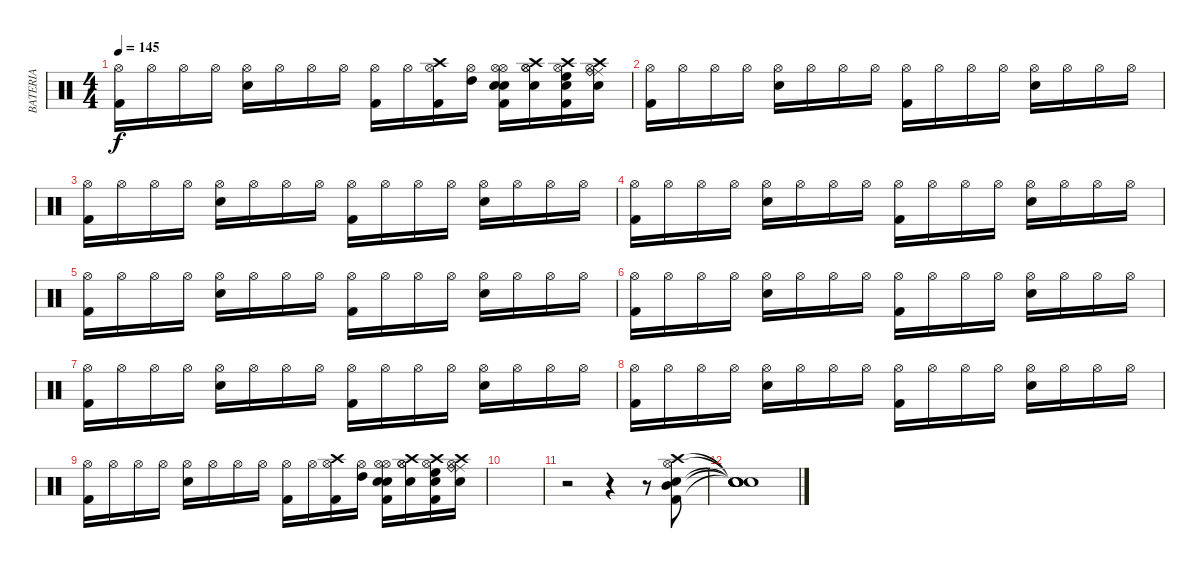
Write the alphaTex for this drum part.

\track ("BATERIA" "BATERIA") {instrument percussion}
\staff {score}
\articulation defaults
\ts (4 4)
\tempo 145
\clef neutral
\ks c
("Hi-Hat (open)" "Kick (hit) 2").16{dy f} "Hi-Hat (open)".16 "Hi-Hat (open)".16 "Hi-Hat (open)".16 ("Hi-Hat (open)" "Snare (hit) 2").16 "Hi-Hat (open)".16 "Hi-Hat (open)".16 "Hi-Hat (open)".16 ("Hi-Hat (open)" "Kick (hit) 2").16 "Hi-Hat (open)".16 ("Hi-Hat (open)" "Kick (hit) 2" "Crash high (hit)").16 ("Hi-Hat (open)" "High Tom (hit)").16 ("Hi-Hat (open)" "Kick (hit) 2" "Snare (hit) 2" "Hi-Hat (open)" "Snare (hit) 2").16 ("Hi-Hat (open)" "Crash high (hit)" "Hi-Hat (open)" "Snare (hit) 2").16 ("Hi-Hat (open)" "Kick (hit) 2" "Crash high (hit)" "High Floor Tom (hit)" "Snare (hit) 2").16 ("Hi-Hat (open)" "Crash high (hit)" "Ride (middle)" "Ride (bell)" "Snare (hit) 2").16 |
("Hi-Hat (open)" "Kick (hit) 2").16 "Hi-Hat (open)".16 "Hi-Hat (open)".16 "Hi-Hat (open)".16 ("Hi-Hat (open)" "Snare (hit) 2").16 "Hi-Hat (open)".16 "Hi-Hat (open)".16 "Hi-Hat (open)".16 ("Hi-Hat (open)" "Kick (hit) 2").16 "Hi-Hat (open)".16 "Hi-Hat (open)".16 "Hi-Hat (open)".16 ("Hi-Hat (open)" "Snare (hit) 2").16 "Hi-Hat (open)".16 "Hi-Hat (open)".16 "Hi-Hat (open)".16 |
("Hi-Hat (open)" "Kick (hit) 2").16 "Hi-Hat (open)".16 "Hi-Hat (open)".16 "Hi-Hat (open)".16 ("Hi-Hat (open)" "Snare (hit) 2").16 "Hi-Hat (open)".16 "Hi-Hat (open)".16 "Hi-Hat (open)".16 ("Hi-Hat (open)" "Kick (hit) 2").16 "Hi-Hat (open)".16 "Hi-Hat (open)".16 "Hi-Hat (open)".16 ("Hi-Hat (open)" "Snare (hit) 2").16 "Hi-Hat (open)".16 "Hi-Hat (open)".16 "Hi-Hat (open)".16 |
("Hi-Hat (open)" "Kick (hit) 2").16 "Hi-Hat (open)".16 "Hi-Hat (open)".16 "Hi-Hat (open)".16 ("Hi-Hat (open)" "Snare (hit) 2").16 "Hi-Hat (open)".16 "Hi-Hat (open)".16 "Hi-Hat (open)".16 ("Hi-Hat (open)" "Kick (hit) 2").16 "Hi-Hat (open)".16 "Hi-Hat (open)".16 "Hi-Hat (open)".16 ("Hi-Hat (open)" "Snare (hit) 2").16 "Hi-Hat (open)".16 "Hi-Hat (open)".16 "Hi-Hat (open)".16 |
("Hi-Hat (open)" "Kick (hit) 2").16 "Hi-Hat (open)".16 "Hi-Hat (open)".16 "Hi-Hat (open)".16 ("Hi-Hat (open)" "Snare (hit) 2").16 "Hi-Hat (open)".16 "Hi-Hat (open)".16 "Hi-Hat (open)".16 ("Hi-Hat (open)" "Kick (hit) 2").16 "Hi-Hat (open)".16 "Hi-Hat (open)".16 "Hi-Hat (open)".16 ("Hi-Hat (open)" "Snare (hit) 2").16 "Hi-Hat (open)".16 "Hi-Hat (open)".16 "Hi-Hat (open)".16 |
("Hi-Hat (open)" "Kick (hit) 2").16 "Hi-Hat (open)".16 "Hi-Hat (open)".16 "Hi-Hat (open)".16 ("Hi-Hat (open)" "Snare (hit) 2").16 "Hi-Hat (open)".16 "Hi-Hat (open)".16 "Hi-Hat (open)".16 ("Hi-Hat (open)" "Kick (hit) 2").16 "Hi-Hat (open)".16 "Hi-Hat (open)".16 "Hi-Hat (open)".16 ("Hi-Hat (open)" "Snare (hit) 2").16 "Hi-Hat (open)".16 "Hi-Hat (open)".16 "Hi-Hat (open)".16 |
("Hi-Hat (open)" "Kick (hit) 2").16 "Hi-Hat (open)".16 "Hi-Hat (open)".16 "Hi-Hat (open)".16 ("Hi-Hat (open)" "Snare (hit) 2").16 "Hi-Hat (open)".16 "Hi-Hat (open)".16 "Hi-Hat (open)".16 ("Hi-Hat (open)" "Kick (hit) 2").16 "Hi-Hat (open)".16 "Hi-Hat (open)".16 "Hi-Hat (open)".16 ("Hi-Hat (open)" "Snare (hit) 2").16 "Hi-Hat (open)".16 "Hi-Hat (open)".16 "Hi-Hat (open)".16 |
("Hi-Hat (open)" "Kick (hit) 2").16 "Hi-Hat (open)".16 "Hi-Hat (open)".16 "Hi-Hat (open)".16 ("Hi-Hat (open)" "Snare (hit) 2").16 "Hi-Hat (open)".16 "Hi-Hat (open)".16 "Hi-Hat (open)".16 ("Hi-Hat (open)" "Kick (hit) 2").16 "Hi-Hat (open)".16 "Hi-Hat (open)".16 "Hi-Hat (open)".16 ("Hi-Hat (open)" "Snare (hit) 2").16 "Hi-Hat (open)".16 "Hi-Hat (open)".16 "Hi-Hat (open)".16 |
("Hi-Hat (open)" "Kick (hit) 2").16 "Hi-Hat (open)".16 "Hi-Hat (open)".16 "Hi-Hat (open)".16 ("Hi-Hat (open)" "Snare (hit) 2").16 "Hi-Hat (open)".16 "Hi-Hat (open)".16 "Hi-Hat (open)".16 ("Hi-Hat (open)" "Kick (hit) 2").16 "Hi-Hat (open)".16 ("Hi-Hat (open)" "Kick (hit) 2" "Crash high (hit)").16 ("Hi-Hat (open)" "High Tom (hit)").16 ("Hi-Hat (open)" "Kick (hit) 2" "Snare (hit) 2" "Hi-Hat (open)" "Snare (hit) 2").16 ("Hi-Hat (open)" "Crash high (hit)" "Hi-Hat (open)" "Snare (hit) 2").16 ("Hi-Hat (open)" "Kick (hit) 2" "Crash high (hit)" "High Floor Tom (hit)" "Snare (hit) 2").16 ("Hi-Hat (open)" "Crash high (hit)" "Ride (middle)" "Ride (bell)" "Snare (hit) 2").16 |
|
r.2 r.4 r.8 ("Kick (hit) 2" "Snare (hit) 2" "Hi-Hat (open)" "Mid Tom (hit)" "Crash high (hit)").8 |
("Snare (hit)"{t} "Snare (hit)"{t} "Snare (hit)"{t} "Snare (hit)"{t} "Snare (hit)"{t}).1
